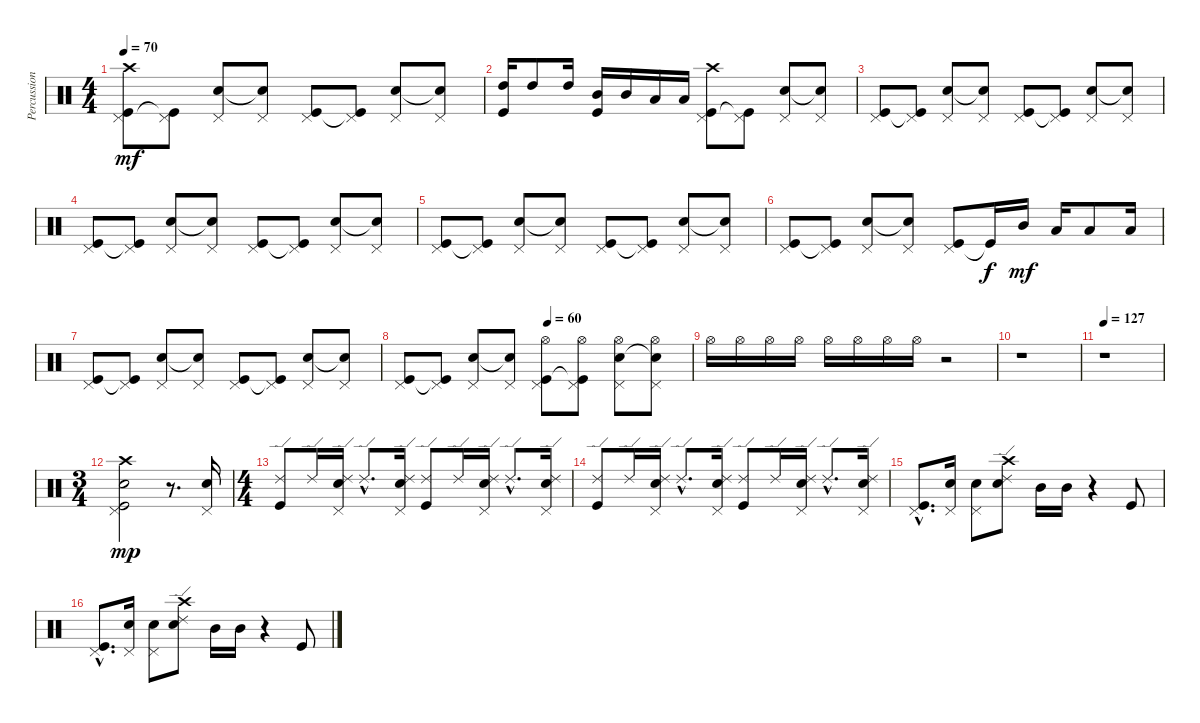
\track ("Percussion" "Percussion") {instrument percussion}
\staff {score}
\articulation defaults
\ts (4 4)
\tempo 70
\clef neutral
\ks c
("Crash high (hit)" "Pedal Hi-Hat (hit)" "Kick (hit)").8{dy mf} ("Pedal Hi-Hat (hit)" "Kick (hit)"{t}).8 ("Pedal Hi-Hat (hit)" "Snare (hit) 2").8 ("Pedal Hi-Hat (hit)" "Snare (hit) 2"{t}).8 ("Pedal Hi-Hat (hit)" "Kick (hit)").8 ("Pedal Hi-Hat (hit)" "Kick (hit)"{t}).8 ("Pedal Hi-Hat (hit)" "Snare (hit) 2").8 ("Pedal Hi-Hat (hit)" "Snare (hit) 2"{t}).8 |
("High Tom (hit)" "Kick (hit)").16 "High Tom (hit)".8 "High Tom (hit)".16 ("Mid Tom (hit)" "Kick (hit)").16 "Mid Tom (hit)".16 "Low Tom (hit)".16 "Low Tom (hit)".16 ("Crash high (hit)" "Pedal Hi-Hat (hit)" "Kick (hit)").8 ("Pedal Hi-Hat (hit)" "Kick (hit)"{t}).8 ("Pedal Hi-Hat (hit)" "Snare (hit) 2").8 ("Pedal Hi-Hat (hit)" "Snare (hit) 2"{t}).8 |
("Pedal Hi-Hat (hit)" "Kick (hit)").8 ("Pedal Hi-Hat (hit)" "Kick (hit)"{t}).8 ("Pedal Hi-Hat (hit)" "Snare (hit) 2").8 ("Pedal Hi-Hat (hit)" "Snare (hit) 2"{t}).8 ("Pedal Hi-Hat (hit)" "Kick (hit)").8 ("Pedal Hi-Hat (hit)" "Kick (hit)"{t}).8 ("Pedal Hi-Hat (hit)" "Snare (hit) 2").8 ("Pedal Hi-Hat (hit)" "Snare (hit) 2"{t}).8 |
("Pedal Hi-Hat (hit)" "Kick (hit)").8 ("Pedal Hi-Hat (hit)" "Kick (hit)"{t}).8 ("Pedal Hi-Hat (hit)" "Snare (hit) 2").8 ("Pedal Hi-Hat (hit)" "Snare (hit) 2"{t}).8 ("Pedal Hi-Hat (hit)" "Kick (hit)").8 ("Pedal Hi-Hat (hit)" "Kick (hit)"{t}).8 ("Pedal Hi-Hat (hit)" "Snare (hit) 2").8 ("Pedal Hi-Hat (hit)" "Snare (hit) 2"{t}).8 |
("Pedal Hi-Hat (hit)" "Kick (hit)").8 ("Pedal Hi-Hat (hit)" "Kick (hit)"{t}).8 ("Pedal Hi-Hat (hit)" "Snare (hit) 2").8 ("Pedal Hi-Hat (hit)" "Snare (hit) 2"{t}).8 ("Pedal Hi-Hat (hit)" "Kick (hit)").8 ("Pedal Hi-Hat (hit)" "Kick (hit)"{t}).8 ("Pedal Hi-Hat (hit)" "Snare (hit) 2").8 ("Pedal Hi-Hat (hit)" "Snare (hit) 2"{t}).8 |
("Pedal Hi-Hat (hit)" "Kick (hit)").8 ("Pedal Hi-Hat (hit)" "Kick (hit)"{t}).8 ("Pedal Hi-Hat (hit)" "Snare (hit) 2").8 ("Pedal Hi-Hat (hit)" "Snare (hit) 2"{t}).8 ("Pedal Hi-Hat (hit)" "Kick (hit)").8 "Kick (hit)"{t}.16{dy f} "Mid Tom (hit)".16{dy mf} "Low Tom (hit)".16 "Low Tom (hit)".8 "Low Tom (hit)".16 |
("Pedal Hi-Hat (hit)" "Kick (hit)").8 ("Pedal Hi-Hat (hit)" "Kick (hit)"{t}).8 ("Pedal Hi-Hat (hit)" "Snare (hit) 2").8 ("Pedal Hi-Hat (hit)" "Snare (hit) 2"{t}).8 ("Pedal Hi-Hat (hit)" "Kick (hit)").8 ("Pedal Hi-Hat (hit)" "Kick (hit)"{t}).8 ("Pedal Hi-Hat (hit)" "Snare (hit) 2").8 ("Pedal Hi-Hat (hit)" "Snare (hit) 2"{t}).8 |
\tempo (60 0.5)
("Pedal Hi-Hat (hit)" "Kick (hit)").8 ("Pedal Hi-Hat (hit)" "Kick (hit)"{t}).8 ("Pedal Hi-Hat (hit)" "Snare (hit) 2").8 ("Pedal Hi-Hat (hit)" "Snare (hit) 2"{t}).8 ("Hi-Hat (open)" "Pedal Hi-Hat (hit)" "Kick (hit)").8 ("Hi-Hat (open)" "Pedal Hi-Hat (hit)" "Kick (hit)"{t}).8 ("Hi-Hat (open)" "Pedal Hi-Hat (hit)" "Snare (hit) 2").8 ("Hi-Hat (open)" "Pedal Hi-Hat (hit)" "Snare (hit) 2"{t}).8 |
"Hi-Hat (open)".16 "Hi-Hat (open)".16 "Hi-Hat (open)".16 "Hi-Hat (open)".16 "Hi-Hat (open)".16 "Hi-Hat (open)".16 "Hi-Hat (open)".16 "Hi-Hat (open)".16 r.2 |
r.1 |
\tempo 127
r.1 |
\ts (3 4)
("Crash high (hit)" "Pedal Hi-Hat (hit)" "Snare (hit) 2" "Kick (hit)").2{dy mp} r.8{d} ("Pedal Hi-Hat (hit)" "Snare (hit) 2").16 |
\ts (4 4)
("Ride (edge) 2" "Kick (hit)").8 "Ride (edge) 2".16 ("Ride (edge) 2" "Pedal Hi-Hat (hit)" "Snare (hit) 2").16 "Ride (edge) 2"{hac}.8{d} ("Ride (edge) 2" "Pedal Hi-Hat (hit)" "Snare (hit) 2").16 ("Ride (edge) 2" "Kick (hit)").8 "Ride (edge) 2".16 ("Ride (edge) 2" "Pedal Hi-Hat (hit)" "Snare (hit) 2").16 "Ride (edge) 2"{hac}.8{d} ("Ride (edge) 2" "Pedal Hi-Hat (hit)" "Snare (hit) 2").16 |
("Ride (edge) 2" "Kick (hit)").8 "Ride (edge) 2".16 ("Ride (edge) 2" "Pedal Hi-Hat (hit)" "Snare (hit) 2").16 "Ride (edge) 2"{hac}.8{d} ("Ride (edge) 2" "Pedal Hi-Hat (hit)" "Snare (hit) 2").16 ("Ride (edge) 2" "Kick (hit)").8 "Ride (edge) 2".16 ("Ride (edge) 2" "Pedal Hi-Hat (hit)" "Snare (hit) 2").16 "Ride (edge) 2"{hac}.8{d} ("Ride (edge) 2" "Pedal Hi-Hat (hit)" "Snare (hit) 2").16 |
("Pedal Hi-Hat (hit)"{hac} "Kick (hit)"{hac}).8{d} ("Pedal Hi-Hat (hit)" "Snare (hit) 2").16 ("Pedal Hi-Hat (hit)" "Snare (hit) 2").8 ("Ride (edge) 2" "Crash high (hit)" "Snare (hit) 2").8 "Mid Tom (hit)".16 "Mid Tom (hit)".16 r.4 "Kick (hit)".8 |
("Pedal Hi-Hat (hit)"{hac} "Kick (hit)"{hac}).8{d} ("Pedal Hi-Hat (hit)" "Snare (hit) 2").16 ("Pedal Hi-Hat (hit)" "Snare (hit) 2").8 ("Ride (edge) 2" "Crash high (hit)" "Snare (hit) 2").8 "Mid Tom (hit)".16 "Mid Tom (hit)".16 r.4 "Kick (hit)".8
